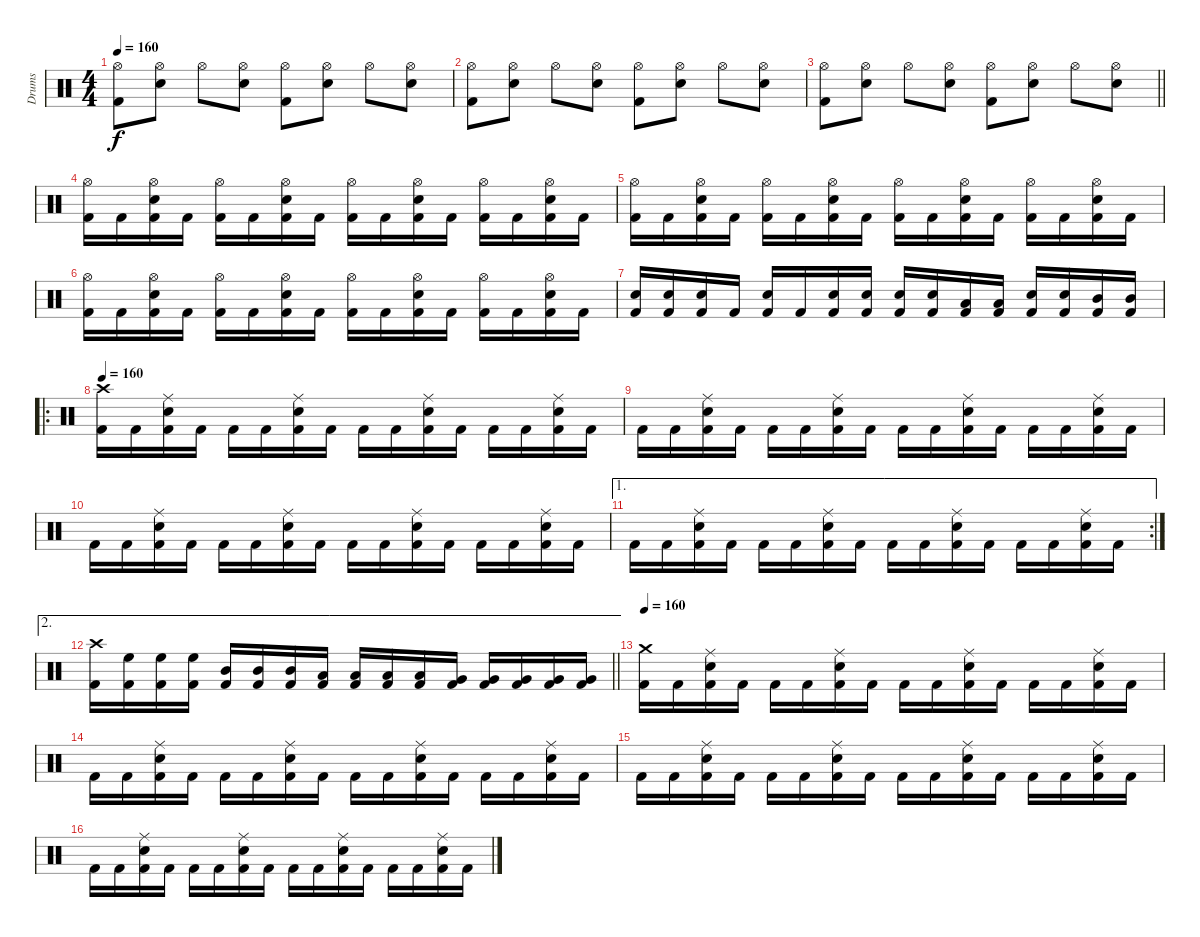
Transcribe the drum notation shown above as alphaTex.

\track ("Drums" "Drums") {instrument percussion}
\staff {score}
\articulation defaults
\ts (4 4)
\tempo 160
\clef neutral
\ks c
("Hi-Hat (open)" "Kick (hit) 2").8{dy f} ("Hi-Hat (open)" "Snare (hit) 2").8 "Hi-Hat (open)".8 ("Hi-Hat (open)" "Snare (hit) 2").8 ("Hi-Hat (open)" "Kick (hit) 2").8 ("Hi-Hat (open)" "Snare (hit) 2").8 "Hi-Hat (open)".8 ("Hi-Hat (open)" "Snare (hit) 2").8 |
("Hi-Hat (open)" "Kick (hit) 2").8 ("Hi-Hat (open)" "Snare (hit) 2").8 "Hi-Hat (open)".8 ("Hi-Hat (open)" "Snare (hit) 2").8 ("Hi-Hat (open)" "Kick (hit) 2").8 ("Hi-Hat (open)" "Snare (hit) 2").8 "Hi-Hat (open)".8 ("Hi-Hat (open)" "Snare (hit) 2").8 |
\barLineRight lightlight
("Hi-Hat (open)" "Kick (hit) 2").8 ("Hi-Hat (open)" "Snare (hit) 2").8 "Hi-Hat (open)".8 ("Hi-Hat (open)" "Snare (hit) 2").8 ("Hi-Hat (open)" "Kick (hit) 2").8 ("Hi-Hat (open)" "Snare (hit) 2").8 "Hi-Hat (open)".8 ("Hi-Hat (open)" "Snare (hit) 2").8 |
("Hi-Hat (open)" "Kick (hit) 2").16 "Kick (hit) 2".16 ("Hi-Hat (open)" "Snare (hit) 2" "Kick (hit) 2").16 "Kick (hit) 2".16 ("Hi-Hat (open)" "Kick (hit) 2").16 "Kick (hit) 2".16 ("Hi-Hat (open)" "Snare (hit) 2" "Kick (hit) 2").16 "Kick (hit) 2".16 ("Hi-Hat (open)" "Kick (hit) 2").16 "Kick (hit) 2".16 ("Hi-Hat (open)" "Snare (hit) 2" "Kick (hit) 2").16 "Kick (hit) 2".16 ("Hi-Hat (open)" "Kick (hit) 2").16 "Kick (hit) 2".16 ("Hi-Hat (open)" "Snare (hit) 2" "Kick (hit) 2").16 "Kick (hit) 2".16 |
("Hi-Hat (open)" "Kick (hit) 2").16 "Kick (hit) 2".16 ("Hi-Hat (open)" "Snare (hit) 2" "Kick (hit) 2").16 "Kick (hit) 2".16 ("Hi-Hat (open)" "Kick (hit) 2").16 "Kick (hit) 2".16 ("Hi-Hat (open)" "Snare (hit) 2" "Kick (hit) 2").16 "Kick (hit) 2".16 ("Hi-Hat (open)" "Kick (hit) 2").16 "Kick (hit) 2".16 ("Hi-Hat (open)" "Snare (hit) 2" "Kick (hit) 2").16 "Kick (hit) 2".16 ("Hi-Hat (open)" "Kick (hit) 2").16 "Kick (hit) 2".16 ("Hi-Hat (open)" "Snare (hit) 2" "Kick (hit) 2").16 "Kick (hit) 2".16 |
("Hi-Hat (open)" "Kick (hit) 2").16 "Kick (hit) 2".16 ("Hi-Hat (open)" "Snare (hit) 2" "Kick (hit) 2").16 "Kick (hit) 2".16 ("Hi-Hat (open)" "Kick (hit) 2").16 "Kick (hit) 2".16 ("Hi-Hat (open)" "Snare (hit) 2" "Kick (hit) 2").16 "Kick (hit) 2".16 ("Hi-Hat (open)" "Kick (hit) 2").16 "Kick (hit) 2".16 ("Hi-Hat (open)" "Snare (hit) 2" "Kick (hit) 2").16 "Kick (hit) 2".16 ("Hi-Hat (open)" "Kick (hit) 2").16 "Kick (hit) 2".16 ("Hi-Hat (open)" "Snare (hit) 2" "Kick (hit) 2").16 "Kick (hit) 2".16 |
("Snare (hit) 2" "Kick (hit) 2").16 ("Snare (hit) 2" "Kick (hit) 2").16 ("Snare (hit) 2" "Kick (hit) 2").16 "Kick (hit) 2".16 ("Snare (hit) 2" "Kick (hit) 2").16 "Kick (hit) 2".16 ("Snare (hit) 2" "Kick (hit) 2").16 ("Snare (hit) 2" "Kick (hit) 2").16 ("Snare (hit) 2" "Kick (hit) 2").16 ("Snare (hit) 2" "Kick (hit) 2").16 ("Low Tom (hit)" "Kick (hit) 2").16 ("Low Tom (hit)" "Kick (hit) 2").16 ("Snare (hit) 2" "Kick (hit) 2").16 ("Snare (hit) 2" "Kick (hit) 2").16 ("Mid Tom (hit)" "Kick (hit) 2").16 ("Mid Tom (hit)" "Kick (hit) 2").16 |
\ro
\tempo 160
("Crash high (hit)" "Kick (hit) 2").16 "Kick (hit) 2".16 ("Ride (middle)" "Snare (hit) 2" "Kick (hit) 2").16 "Kick (hit) 2".16 "Kick (hit) 2".16 "Kick (hit) 2".16 ("Ride (middle)" "Snare (hit) 2" "Kick (hit) 2").16 "Kick (hit) 2".16 "Kick (hit) 2".16 "Kick (hit) 2".16 ("Ride (middle)" "Snare (hit) 2" "Kick (hit) 2").16 "Kick (hit) 2".16 "Kick (hit) 2".16 "Kick (hit) 2".16 ("Ride (middle)" "Snare (hit) 2" "Kick (hit) 2").16 "Kick (hit) 2".16 |
"Kick (hit) 2".16 "Kick (hit) 2".16 ("Ride (middle)" "Snare (hit) 2" "Kick (hit) 2").16 "Kick (hit) 2".16 "Kick (hit) 2".16 "Kick (hit) 2".16 ("Ride (middle)" "Snare (hit) 2" "Kick (hit) 2").16 "Kick (hit) 2".16 "Kick (hit) 2".16 "Kick (hit) 2".16 ("Ride (middle)" "Snare (hit) 2" "Kick (hit) 2").16 "Kick (hit) 2".16 "Kick (hit) 2".16 "Kick (hit) 2".16 ("Ride (middle)" "Snare (hit) 2" "Kick (hit) 2").16 "Kick (hit) 2".16 |
"Kick (hit) 2".16 "Kick (hit) 2".16 ("Ride (middle)" "Snare (hit) 2" "Kick (hit) 2").16 "Kick (hit) 2".16 "Kick (hit) 2".16 "Kick (hit) 2".16 ("Ride (middle)" "Snare (hit) 2" "Kick (hit) 2").16 "Kick (hit) 2".16 "Kick (hit) 2".16 "Kick (hit) 2".16 ("Ride (middle)" "Snare (hit) 2" "Kick (hit) 2").16 "Kick (hit) 2".16 "Kick (hit) 2".16 "Kick (hit) 2".16 ("Ride (middle)" "Snare (hit) 2" "Kick (hit) 2").16 "Kick (hit) 2".16 |
\ae 1
\rc 2 "Kick (hit) 2".16 "Kick (hit) 2".16
("Ride (middle)" "Snare (hit) 2" "Kick (hit) 2").16 "Kick (hit) 2".16 "Kick (hit) 2".16 "Kick (hit) 2".16 ("Ride (middle)" "Snare (hit) 2" "Kick (hit) 2").16 "Kick (hit) 2".16 "Kick (hit) 2".16 "Kick (hit) 2".16 ("Ride (middle)" "Snare (hit) 2" "Kick (hit) 2").16 "Kick (hit) 2".16 "Kick (hit) 2".16 "Kick (hit) 2".16 ("Ride (middle)" "Snare (hit) 2" "Kick (hit) 2").16 "Kick (hit) 2".16 |
\ae 2
\barLineRight lightlight
("Crash high (hit)" "Kick (hit) 2").16 ("High Floor Tom (hit)" "Kick (hit) 2").16 ("High Floor Tom (hit)" "Kick (hit) 2").16 ("High Floor Tom (hit)" "Kick (hit) 2").16 ("Mid Tom (hit)" "Kick (hit) 2").16 ("Mid Tom (hit)" "Kick (hit) 2").16 ("Mid Tom (hit)" "Kick (hit) 2").16 ("Low Tom (hit)" "Kick (hit) 2").16 ("Low Tom (hit)" "Kick (hit) 2").16 ("Low Tom (hit)" "Kick (hit) 2").16 ("Low Tom (hit)" "Kick (hit) 2").16 ("Very Low Tom (hit)" "Kick (hit) 2").16 ("Very Low Tom (hit)" "Kick (hit) 2").16 ("Very Low Tom (hit)" "Kick (hit) 2").16 ("Very Low Tom (hit)" "Kick (hit) 2").16 ("Very Low Tom (hit)" "Kick (hit) 2").16 |
\tempo 160
("Crash medium (hit)" "Kick (hit) 2").16 "Kick (hit) 2".16 ("Ride (middle)" "Snare (hit) 2" "Kick (hit) 2").16 "Kick (hit) 2".16 "Kick (hit) 2".16 "Kick (hit) 2".16 ("Ride (middle)" "Snare (hit) 2" "Kick (hit) 2").16 "Kick (hit) 2".16 "Kick (hit) 2".16 "Kick (hit) 2".16 ("Ride (middle)" "Snare (hit) 2" "Kick (hit) 2").16 "Kick (hit) 2".16 "Kick (hit) 2".16 "Kick (hit) 2".16 ("Ride (middle)" "Snare (hit) 2" "Kick (hit) 2").16 "Kick (hit) 2".16 |
"Kick (hit) 2".16 "Kick (hit) 2".16 ("Ride (middle)" "Snare (hit) 2" "Kick (hit) 2").16 "Kick (hit) 2".16 "Kick (hit) 2".16 "Kick (hit) 2".16 ("Ride (middle)" "Snare (hit) 2" "Kick (hit) 2").16 "Kick (hit) 2".16 "Kick (hit) 2".16 "Kick (hit) 2".16 ("Ride (middle)" "Snare (hit) 2" "Kick (hit) 2").16 "Kick (hit) 2".16 "Kick (hit) 2".16 "Kick (hit) 2".16 ("Ride (middle)" "Snare (hit) 2" "Kick (hit) 2").16 "Kick (hit) 2".16 |
"Kick (hit) 2".16 "Kick (hit) 2".16 ("Ride (middle)" "Snare (hit) 2" "Kick (hit) 2").16 "Kick (hit) 2".16 "Kick (hit) 2".16 "Kick (hit) 2".16 ("Ride (middle)" "Snare (hit) 2" "Kick (hit) 2").16 "Kick (hit) 2".16 "Kick (hit) 2".16 "Kick (hit) 2".16 ("Ride (middle)" "Snare (hit) 2" "Kick (hit) 2").16 "Kick (hit) 2".16 "Kick (hit) 2".16 "Kick (hit) 2".16 ("Ride (middle)" "Snare (hit) 2" "Kick (hit) 2").16 "Kick (hit) 2".16 |
"Kick (hit) 2".16 "Kick (hit) 2".16 ("Ride (middle)" "Snare (hit) 2" "Kick (hit) 2").16 "Kick (hit) 2".16 "Kick (hit) 2".16 "Kick (hit) 2".16 ("Ride (middle)" "Snare (hit) 2" "Kick (hit) 2").16 "Kick (hit) 2".16 "Kick (hit) 2".16 "Kick (hit) 2".16 ("Ride (middle)" "Snare (hit) 2" "Kick (hit) 2").16 "Kick (hit) 2".16 "Kick (hit) 2".16 "Kick (hit) 2".16 ("Ride (middle)" "Snare (hit) 2" "Kick (hit) 2").16 "Kick (hit) 2".16
